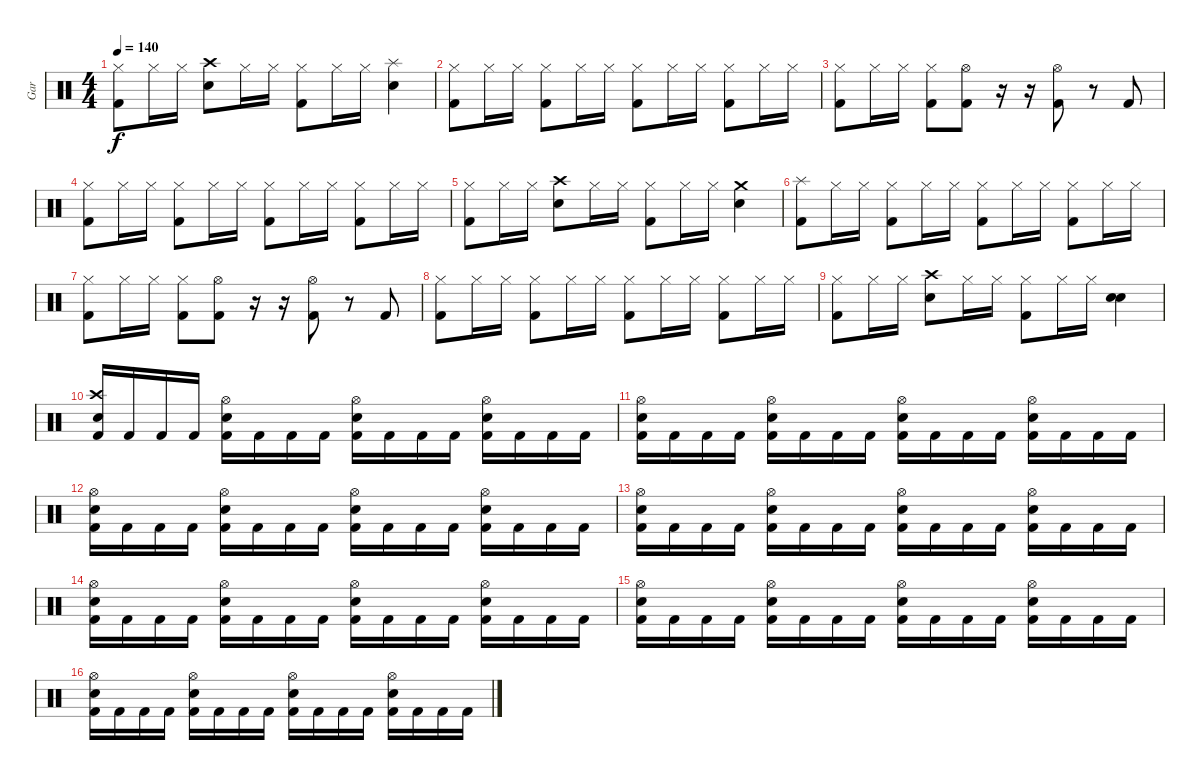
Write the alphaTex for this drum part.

\track ("Gar" "Gar") {instrument percussion}
\staff {score}
\articulation defaults
\ts (4 4)
\tempo 140
\clef neutral
\ks c
("Hi-Hat (closed)" "Kick (hit) 2").8{dy f} "Hi-Hat (closed)".16 "Hi-Hat (closed)".16 ("Crash high (hit)" "Snare (hit) 2").8 "Hi-Hat (closed)".16 "Hi-Hat (closed)".16 ("Hi-Hat (closed)" "Kick (hit) 2").8 "Hi-Hat (closed)".16 "Hi-Hat (closed)".16 ("Splash (hit)" "Snare (hit) 2").4 |
("Hi-Hat (closed)" "Kick (hit) 2").8 "Hi-Hat (closed)".16 "Hi-Hat (closed)".16 ("Hi-Hat (closed)" "Kick (hit) 2").8 "Hi-Hat (closed)".16 "Hi-Hat (closed)".16 ("Hi-Hat (closed)" "Kick (hit) 2").8 "Hi-Hat (closed)".16 "Hi-Hat (closed)".16 ("Hi-Hat (closed)" "Kick (hit) 2").8 "Hi-Hat (closed)".16 "Hi-Hat (closed)".16 |
("Hi-Hat (closed)" "Kick (hit) 2").8 "Hi-Hat (closed)".16 "Hi-Hat (closed)".16 ("Hi-Hat (closed)" "Kick (hit) 2").8 ("Hi-Hat (open)" "Kick (hit) 2").8 r.16 r.16 ("Hi-Hat (open)" "Kick (hit) 2").8 r.8 "Kick (hit) 2".8 |
("Hi-Hat (closed)" "Kick (hit) 2").8 "Hi-Hat (closed)".16 "Hi-Hat (closed)".16 ("Hi-Hat (closed)" "Kick (hit) 2").8 "Hi-Hat (closed)".16 "Hi-Hat (closed)".16 ("Hi-Hat (closed)" "Kick (hit) 2").8 "Hi-Hat (closed)".16 "Hi-Hat (closed)".16 ("Hi-Hat (closed)" "Kick (hit) 2").8 "Hi-Hat (closed)".16 "Hi-Hat (closed)".16 |
("Hi-Hat (closed)" "Kick (hit) 2").8 "Hi-Hat (closed)".16 "Hi-Hat (closed)".16 ("Crash high (hit)" "Snare (hit) 2").8 "Hi-Hat (closed)".16 "Hi-Hat (closed)".16 ("Hi-Hat (closed)" "Kick (hit) 2").8 "Hi-Hat (closed)".16 "Hi-Hat (closed)".16 ("Crash medium (hit)" "Snare (hit) 2").4 |
("Splash (hit)" "Kick (hit) 2").8 "Hi-Hat (closed)".16 "Hi-Hat (closed)".16 ("Hi-Hat (closed)" "Kick (hit) 2").8 "Hi-Hat (closed)".16 "Hi-Hat (closed)".16 ("Hi-Hat (closed)" "Kick (hit) 2").8 "Hi-Hat (closed)".16 "Hi-Hat (closed)".16 ("Hi-Hat (closed)" "Kick (hit) 2").8 "Hi-Hat (closed)".16 "Hi-Hat (closed)".16 |
("Hi-Hat (closed)" "Kick (hit) 2").8 "Hi-Hat (closed)".16 "Hi-Hat (closed)".16 ("Hi-Hat (closed)" "Kick (hit) 2").8 ("Hi-Hat (open)" "Kick (hit) 2").8 r.16 r.16 ("Hi-Hat (open)" "Kick (hit) 2").8 r.8 "Kick (hit) 2".8 |
("Hi-Hat (closed)" "Kick (hit) 2").8 "Hi-Hat (closed)".16 "Hi-Hat (closed)".16 ("Hi-Hat (closed)" "Kick (hit) 2").8 "Hi-Hat (closed)".16 "Hi-Hat (closed)".16 ("Hi-Hat (closed)" "Kick (hit) 2").8 "Hi-Hat (closed)".16 "Hi-Hat (closed)".16 ("Hi-Hat (closed)" "Kick (hit) 2").8 "Hi-Hat (closed)".16 "Hi-Hat (closed)".16 |
("Hi-Hat (closed)" "Kick (hit) 2").8 "Hi-Hat (closed)".16 "Hi-Hat (closed)".16 ("Crash high (hit)" "Snare (hit) 2").8 "Hi-Hat (closed)".16 "Hi-Hat (closed)".16 ("Hi-Hat (closed)" "Kick (hit) 2").8 "Hi-Hat (closed)".16 "Hi-Hat (closed)".16 ("Snare (hit) 2" "Snare (hit) 2").4 |
("Crash high (hit)" "Snare (hit) 2" "Kick (hit) 2").16 "Kick (hit) 2".16 "Kick (hit) 2".16 "Kick (hit) 2".16 ("Hi-Hat (open)" "Snare (hit) 2" "Kick (hit) 2").16 "Kick (hit) 2".16 "Kick (hit) 2".16 "Kick (hit) 2".16 ("Hi-Hat (open)" "Snare (hit) 2" "Kick (hit) 2").16 "Kick (hit) 2".16 "Kick (hit) 2".16 "Kick (hit) 2".16 ("Hi-Hat (open)" "Snare (hit) 2" "Kick (hit) 2").16 "Kick (hit) 2".16 "Kick (hit) 2".16 "Kick (hit) 2".16 |
("Hi-Hat (open)" "Snare (hit) 2" "Kick (hit) 2").16 "Kick (hit) 2".16 "Kick (hit) 2".16 "Kick (hit) 2".16 ("Hi-Hat (open)" "Snare (hit) 2" "Kick (hit) 2").16 "Kick (hit) 2".16 "Kick (hit) 2".16 "Kick (hit) 2".16 ("Hi-Hat (open)" "Snare (hit) 2" "Kick (hit) 2").16 "Kick (hit) 2".16 "Kick (hit) 2".16 "Kick (hit) 2".16 ("Hi-Hat (open)" "Snare (hit) 2" "Kick (hit) 2").16 "Kick (hit) 2".16 "Kick (hit) 2".16 "Kick (hit) 2".16 |
("Hi-Hat (open)" "Snare (hit) 2" "Kick (hit) 2").16 "Kick (hit) 2".16 "Kick (hit) 2".16 "Kick (hit) 2".16 ("Hi-Hat (open)" "Snare (hit) 2" "Kick (hit) 2").16 "Kick (hit) 2".16 "Kick (hit) 2".16 "Kick (hit) 2".16 ("Hi-Hat (open)" "Snare (hit) 2" "Kick (hit) 2").16 "Kick (hit) 2".16 "Kick (hit) 2".16 "Kick (hit) 2".16 ("Hi-Hat (open)" "Snare (hit) 2" "Kick (hit) 2").16 "Kick (hit) 2".16 "Kick (hit) 2".16 "Kick (hit) 2".16 |
("Hi-Hat (open)" "Snare (hit) 2" "Kick (hit) 2").16 "Kick (hit) 2".16 "Kick (hit) 2".16 "Kick (hit) 2".16 ("Hi-Hat (open)" "Snare (hit) 2" "Kick (hit) 2").16 "Kick (hit) 2".16 "Kick (hit) 2".16 "Kick (hit) 2".16 ("Hi-Hat (open)" "Snare (hit) 2" "Kick (hit) 2").16 "Kick (hit) 2".16 "Kick (hit) 2".16 "Kick (hit) 2".16 ("Hi-Hat (open)" "Snare (hit) 2" "Kick (hit) 2").16 "Kick (hit) 2".16 "Kick (hit) 2".16 "Kick (hit) 2".16 |
("Hi-Hat (open)" "Snare (hit) 2" "Kick (hit) 2").16 "Kick (hit) 2".16 "Kick (hit) 2".16 "Kick (hit) 2".16 ("Hi-Hat (open)" "Snare (hit) 2" "Kick (hit) 2").16 "Kick (hit) 2".16 "Kick (hit) 2".16 "Kick (hit) 2".16 ("Hi-Hat (open)" "Snare (hit) 2" "Kick (hit) 2").16 "Kick (hit) 2".16 "Kick (hit) 2".16 "Kick (hit) 2".16 ("Hi-Hat (open)" "Snare (hit) 2" "Kick (hit) 2").16 "Kick (hit) 2".16 "Kick (hit) 2".16 "Kick (hit) 2".16 |
("Hi-Hat (open)" "Snare (hit) 2" "Kick (hit) 2").16 "Kick (hit) 2".16 "Kick (hit) 2".16 "Kick (hit) 2".16 ("Hi-Hat (open)" "Snare (hit) 2" "Kick (hit) 2").16 "Kick (hit) 2".16 "Kick (hit) 2".16 "Kick (hit) 2".16 ("Hi-Hat (open)" "Snare (hit) 2" "Kick (hit) 2").16 "Kick (hit) 2".16 "Kick (hit) 2".16 "Kick (hit) 2".16 ("Hi-Hat (open)" "Snare (hit) 2" "Kick (hit) 2").16 "Kick (hit) 2".16 "Kick (hit) 2".16 "Kick (hit) 2".16 |
("Hi-Hat (open)" "Snare (hit) 2" "Kick (hit) 2").16 "Kick (hit) 2".16 "Kick (hit) 2".16 "Kick (hit) 2".16 ("Hi-Hat (open)" "Snare (hit) 2" "Kick (hit) 2").16 "Kick (hit) 2".16 "Kick (hit) 2".16 "Kick (hit) 2".16 ("Hi-Hat (open)" "Snare (hit) 2" "Kick (hit) 2").16 "Kick (hit) 2".16 "Kick (hit) 2".16 "Kick (hit) 2".16 ("Hi-Hat (open)" "Snare (hit) 2" "Kick (hit) 2").16 "Kick (hit) 2".16 "Kick (hit) 2".16 "Kick (hit) 2".16
